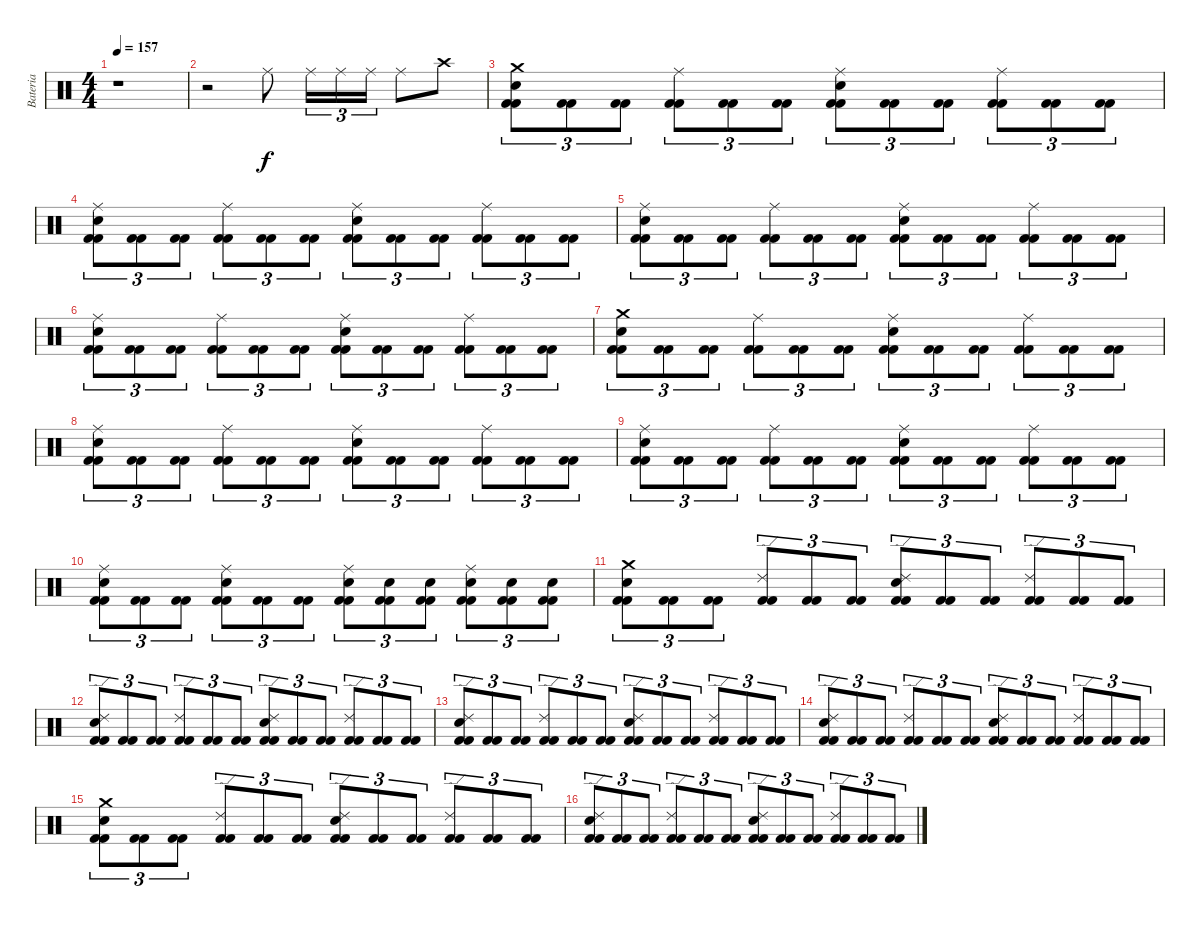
\track ("Bateria" "Bateria") {instrument percussion}
\staff {score}
\articulation defaults
\ts (4 4)
\tempo 157
\clef neutral
\ks c
r.1{dy f} |
r.2 "Ride (middle)".8 "Ride (middle)".16{tu (3 2)} "Ride (middle)".16{tu (3 2)} "Ride (middle)".16{tu (3 2)} "Ride (middle)".8 "Crash high (hit)".8 |
("Kick (hit) 2" "Kick (hit) 2" "Snare (hit) 2" "Crash medium (hit)").8{tu (3 2)} ("Kick (hit) 2" "Kick (hit) 2").8{tu (3 2)} ("Kick (hit) 2" "Kick (hit) 2").8{tu (3 2)} ("Kick (hit) 2" "Kick (hit) 2" "Ride (middle)").8{tu (3 2)} ("Kick (hit) 2" "Kick (hit) 2").8{tu (3 2)} ("Kick (hit) 2" "Kick (hit) 2").8{tu (3 2)} ("Kick (hit) 2" "Kick (hit) 2" "Snare (hit) 2" "Ride (middle)").8{tu (3 2)} ("Kick (hit) 2" "Kick (hit) 2").8{tu (3 2)} ("Kick (hit) 2" "Kick (hit) 2").8{tu (3 2)} ("Kick (hit) 2" "Kick (hit) 2" "Ride (middle)").8{tu (3 2)} ("Kick (hit) 2" "Kick (hit) 2").8{tu (3 2)} ("Kick (hit) 2" "Kick (hit) 2").8{tu (3 2)} |
("Kick (hit) 2" "Kick (hit) 2" "Snare (hit) 2" "Ride (middle)").8{tu (3 2)} ("Kick (hit) 2" "Kick (hit) 2").8{tu (3 2)} ("Kick (hit) 2" "Kick (hit) 2").8{tu (3 2)} ("Kick (hit) 2" "Kick (hit) 2" "Ride (middle)").8{tu (3 2)} ("Kick (hit) 2" "Kick (hit) 2").8{tu (3 2)} ("Kick (hit) 2" "Kick (hit) 2").8{tu (3 2)} ("Kick (hit) 2" "Kick (hit) 2" "Snare (hit) 2" "Ride (middle)").8{tu (3 2)} ("Kick (hit) 2" "Kick (hit) 2").8{tu (3 2)} ("Kick (hit) 2" "Kick (hit) 2").8{tu (3 2)} ("Kick (hit) 2" "Kick (hit) 2" "Ride (middle)").8{tu (3 2)} ("Kick (hit) 2" "Kick (hit) 2").8{tu (3 2)} ("Kick (hit) 2" "Kick (hit) 2").8{tu (3 2)} |
("Kick (hit) 2" "Kick (hit) 2" "Snare (hit) 2" "Ride (middle)").8{tu (3 2)} ("Kick (hit) 2" "Kick (hit) 2").8{tu (3 2)} ("Kick (hit) 2" "Kick (hit) 2").8{tu (3 2)} ("Kick (hit) 2" "Kick (hit) 2" "Ride (middle)").8{tu (3 2)} ("Kick (hit) 2" "Kick (hit) 2").8{tu (3 2)} ("Kick (hit) 2" "Kick (hit) 2").8{tu (3 2)} ("Kick (hit) 2" "Kick (hit) 2" "Snare (hit) 2" "Ride (middle)").8{tu (3 2)} ("Kick (hit) 2" "Kick (hit) 2").8{tu (3 2)} ("Kick (hit) 2" "Kick (hit) 2").8{tu (3 2)} ("Kick (hit) 2" "Kick (hit) 2" "Ride (middle)").8{tu (3 2)} ("Kick (hit) 2" "Kick (hit) 2").8{tu (3 2)} ("Kick (hit) 2" "Kick (hit) 2").8{tu (3 2)} |
("Kick (hit) 2" "Kick (hit) 2" "Snare (hit) 2" "Ride (middle)").8{tu (3 2)} ("Kick (hit) 2" "Kick (hit) 2").8{tu (3 2)} ("Kick (hit) 2" "Kick (hit) 2").8{tu (3 2)} ("Kick (hit) 2" "Kick (hit) 2" "Ride (middle)").8{tu (3 2)} ("Kick (hit) 2" "Kick (hit) 2").8{tu (3 2)} ("Kick (hit) 2" "Kick (hit) 2").8{tu (3 2)} ("Kick (hit) 2" "Kick (hit) 2" "Snare (hit) 2" "Ride (middle)").8{tu (3 2)} ("Kick (hit) 2" "Kick (hit) 2").8{tu (3 2)} ("Kick (hit) 2" "Kick (hit) 2").8{tu (3 2)} ("Kick (hit) 2" "Kick (hit) 2" "Ride (middle)").8{tu (3 2)} ("Kick (hit) 2" "Kick (hit) 2").8{tu (3 2)} ("Kick (hit) 2" "Kick (hit) 2").8{tu (3 2)} |
("Kick (hit) 2" "Kick (hit) 2" "Snare (hit) 2" "Crash medium (hit)").8{tu (3 2)} ("Kick (hit) 2" "Kick (hit) 2").8{tu (3 2)} ("Kick (hit) 2" "Kick (hit) 2").8{tu (3 2)} ("Kick (hit) 2" "Kick (hit) 2" "Ride (middle)").8{tu (3 2)} ("Kick (hit) 2" "Kick (hit) 2").8{tu (3 2)} ("Kick (hit) 2" "Kick (hit) 2").8{tu (3 2)} ("Kick (hit) 2" "Kick (hit) 2" "Snare (hit) 2" "Ride (middle)").8{tu (3 2)} ("Kick (hit) 2" "Kick (hit) 2").8{tu (3 2)} ("Kick (hit) 2" "Kick (hit) 2").8{tu (3 2)} ("Kick (hit) 2" "Kick (hit) 2" "Ride (middle)").8{tu (3 2)} ("Kick (hit) 2" "Kick (hit) 2").8{tu (3 2)} ("Kick (hit) 2" "Kick (hit) 2").8{tu (3 2)} |
("Kick (hit) 2" "Kick (hit) 2" "Snare (hit) 2" "Ride (middle)").8{tu (3 2)} ("Kick (hit) 2" "Kick (hit) 2").8{tu (3 2)} ("Kick (hit) 2" "Kick (hit) 2").8{tu (3 2)} ("Kick (hit) 2" "Kick (hit) 2" "Ride (middle)").8{tu (3 2)} ("Kick (hit) 2" "Kick (hit) 2").8{tu (3 2)} ("Kick (hit) 2" "Kick (hit) 2").8{tu (3 2)} ("Kick (hit) 2" "Kick (hit) 2" "Snare (hit) 2" "Ride (middle)").8{tu (3 2)} ("Kick (hit) 2" "Kick (hit) 2").8{tu (3 2)} ("Kick (hit) 2" "Kick (hit) 2").8{tu (3 2)} ("Kick (hit) 2" "Kick (hit) 2" "Ride (middle)").8{tu (3 2)} ("Kick (hit) 2" "Kick (hit) 2").8{tu (3 2)} ("Kick (hit) 2" "Kick (hit) 2").8{tu (3 2)} |
("Kick (hit) 2" "Kick (hit) 2" "Snare (hit) 2" "Ride (middle)").8{tu (3 2)} ("Kick (hit) 2" "Kick (hit) 2").8{tu (3 2)} ("Kick (hit) 2" "Kick (hit) 2").8{tu (3 2)} ("Kick (hit) 2" "Kick (hit) 2" "Ride (middle)").8{tu (3 2)} ("Kick (hit) 2" "Kick (hit) 2").8{tu (3 2)} ("Kick (hit) 2" "Kick (hit) 2").8{tu (3 2)} ("Kick (hit) 2" "Kick (hit) 2" "Snare (hit) 2" "Ride (middle)").8{tu (3 2)} ("Kick (hit) 2" "Kick (hit) 2").8{tu (3 2)} ("Kick (hit) 2" "Kick (hit) 2").8{tu (3 2)} ("Kick (hit) 2" "Kick (hit) 2" "Ride (middle)").8{tu (3 2)} ("Kick (hit) 2" "Kick (hit) 2").8{tu (3 2)} ("Kick (hit) 2" "Kick (hit) 2").8{tu (3 2)} |
("Kick (hit) 2" "Kick (hit) 2" "Snare (hit) 2" "Ride (middle)").8{tu (3 2)} ("Kick (hit) 2" "Kick (hit) 2").8{tu (3 2)} ("Kick (hit) 2" "Kick (hit) 2").8{tu (3 2)} ("Kick (hit) 2" "Kick (hit) 2" "Snare (hit) 2" "Ride (middle)").8{tu (3 2)} ("Kick (hit) 2" "Kick (hit) 2").8{tu (3 2)} ("Kick (hit) 2" "Kick (hit) 2").8{tu (3 2)} ("Kick (hit) 2" "Kick (hit) 2" "Snare (hit) 2" "Ride (middle)").8{tu (3 2)} ("Kick (hit) 2" "Kick (hit) 2" "Snare (hit) 2").8{tu (3 2)} ("Kick (hit) 2" "Kick (hit) 2" "Snare (hit) 2").8{tu (3 2)} ("Kick (hit) 2" "Kick (hit) 2" "Snare (hit) 2" "Ride (middle)").8{tu (3 2)} ("Kick (hit) 2" "Kick (hit) 2" "Snare (hit) 2").8{tu (3 2)} ("Kick (hit) 2" "Kick (hit) 2" "Snare (hit) 2").8{tu (3 2)} |
("Kick (hit) 2" "Kick (hit) 2" "Snare (hit) 2" "Crash medium (hit)").8{tu (3 2)} ("Kick (hit) 2" "Kick (hit) 2").8{tu (3 2)} ("Kick (hit) 2" "Kick (hit) 2").8{tu (3 2)} ("Kick (hit) 2" "Kick (hit) 2" "Ride (edge) 2").8{tu (3 2)} ("Kick (hit) 2" "Kick (hit) 2").8{tu (3 2)} ("Kick (hit) 2" "Kick (hit) 2").8{tu (3 2)} ("Kick (hit) 2" "Kick (hit) 2" "Snare (hit) 2" "Ride (edge) 2").8{tu (3 2)} ("Kick (hit) 2" "Kick (hit) 2").8{tu (3 2)} ("Kick (hit) 2" "Kick (hit) 2").8{tu (3 2)} ("Kick (hit) 2" "Kick (hit) 2" "Ride (edge) 2").8{tu (3 2)} ("Kick (hit) 2" "Kick (hit) 2").8{tu (3 2)} ("Kick (hit) 2" "Kick (hit) 2").8{tu (3 2)} |
("Kick (hit) 2" "Kick (hit) 2" "Snare (hit) 2" "Ride (edge) 2").8{tu (3 2)} ("Kick (hit) 2" "Kick (hit) 2").8{tu (3 2)} ("Kick (hit) 2" "Kick (hit) 2").8{tu (3 2)} ("Kick (hit) 2" "Kick (hit) 2" "Ride (edge) 2").8{tu (3 2)} ("Kick (hit) 2" "Kick (hit) 2").8{tu (3 2)} ("Kick (hit) 2" "Kick (hit) 2").8{tu (3 2)} ("Kick (hit) 2" "Kick (hit) 2" "Snare (hit) 2" "Ride (edge) 2").8{tu (3 2)} ("Kick (hit) 2" "Kick (hit) 2").8{tu (3 2)} ("Kick (hit) 2" "Kick (hit) 2").8{tu (3 2)} ("Kick (hit) 2" "Kick (hit) 2" "Ride (edge) 2").8{tu (3 2)} ("Kick (hit) 2" "Kick (hit) 2").8{tu (3 2)} ("Kick (hit) 2" "Kick (hit) 2").8{tu (3 2)} |
("Kick (hit) 2" "Kick (hit) 2" "Snare (hit) 2" "Ride (edge) 2").8{tu (3 2)} ("Kick (hit) 2" "Kick (hit) 2").8{tu (3 2)} ("Kick (hit) 2" "Kick (hit) 2").8{tu (3 2)} ("Kick (hit) 2" "Kick (hit) 2" "Ride (edge) 2").8{tu (3 2)} ("Kick (hit) 2" "Kick (hit) 2").8{tu (3 2)} ("Kick (hit) 2" "Kick (hit) 2").8{tu (3 2)} ("Kick (hit) 2" "Kick (hit) 2" "Snare (hit) 2" "Ride (edge) 2").8{tu (3 2)} ("Kick (hit) 2" "Kick (hit) 2").8{tu (3 2)} ("Kick (hit) 2" "Kick (hit) 2").8{tu (3 2)} ("Kick (hit) 2" "Kick (hit) 2" "Ride (edge) 2").8{tu (3 2)} ("Kick (hit) 2" "Kick (hit) 2").8{tu (3 2)} ("Kick (hit) 2" "Kick (hit) 2").8{tu (3 2)} |
("Kick (hit) 2" "Kick (hit) 2" "Snare (hit) 2" "Ride (edge) 2").8{tu (3 2)} ("Kick (hit) 2" "Kick (hit) 2").8{tu (3 2)} ("Kick (hit) 2" "Kick (hit) 2").8{tu (3 2)} ("Kick (hit) 2" "Kick (hit) 2" "Ride (edge) 2").8{tu (3 2)} ("Kick (hit) 2" "Kick (hit) 2").8{tu (3 2)} ("Kick (hit) 2" "Kick (hit) 2").8{tu (3 2)} ("Kick (hit) 2" "Kick (hit) 2" "Snare (hit) 2" "Ride (edge) 2").8{tu (3 2)} ("Kick (hit) 2" "Kick (hit) 2").8{tu (3 2)} ("Kick (hit) 2" "Kick (hit) 2").8{tu (3 2)} ("Kick (hit) 2" "Kick (hit) 2" "Ride (edge) 2").8{tu (3 2)} ("Kick (hit) 2" "Kick (hit) 2").8{tu (3 2)} ("Kick (hit) 2" "Kick (hit) 2").8{tu (3 2)} |
("Kick (hit) 2" "Kick (hit) 2" "Snare (hit) 2" "Crash medium (hit)").8{tu (3 2)} ("Kick (hit) 2" "Kick (hit) 2").8{tu (3 2)} ("Kick (hit) 2" "Kick (hit) 2").8{tu (3 2)} ("Kick (hit) 2" "Kick (hit) 2" "Ride (edge) 2").8{tu (3 2)} ("Kick (hit) 2" "Kick (hit) 2").8{tu (3 2)} ("Kick (hit) 2" "Kick (hit) 2").8{tu (3 2)} ("Kick (hit) 2" "Kick (hit) 2" "Snare (hit) 2" "Ride (edge) 2").8{tu (3 2)} ("Kick (hit) 2" "Kick (hit) 2").8{tu (3 2)} ("Kick (hit) 2" "Kick (hit) 2").8{tu (3 2)} ("Kick (hit) 2" "Kick (hit) 2" "Ride (edge) 2").8{tu (3 2)} ("Kick (hit) 2" "Kick (hit) 2").8{tu (3 2)} ("Kick (hit) 2" "Kick (hit) 2").8{tu (3 2)} |
("Kick (hit) 2" "Kick (hit) 2" "Snare (hit) 2" "Ride (edge) 2").8{tu (3 2)} ("Kick (hit) 2" "Kick (hit) 2").8{tu (3 2)} ("Kick (hit) 2" "Kick (hit) 2").8{tu (3 2)} ("Kick (hit) 2" "Kick (hit) 2" "Ride (edge) 2").8{tu (3 2)} ("Kick (hit) 2" "Kick (hit) 2").8{tu (3 2)} ("Kick (hit) 2" "Kick (hit) 2").8{tu (3 2)} ("Kick (hit) 2" "Kick (hit) 2" "Snare (hit) 2" "Ride (edge) 2").8{tu (3 2)} ("Kick (hit) 2" "Kick (hit) 2").8{tu (3 2)} ("Kick (hit) 2" "Kick (hit) 2").8{tu (3 2)} ("Kick (hit) 2" "Kick (hit) 2" "Ride (edge) 2").8{tu (3 2)} ("Kick (hit) 2" "Kick (hit) 2").8{tu (3 2)} ("Kick (hit) 2" "Kick (hit) 2").8{tu (3 2)}
